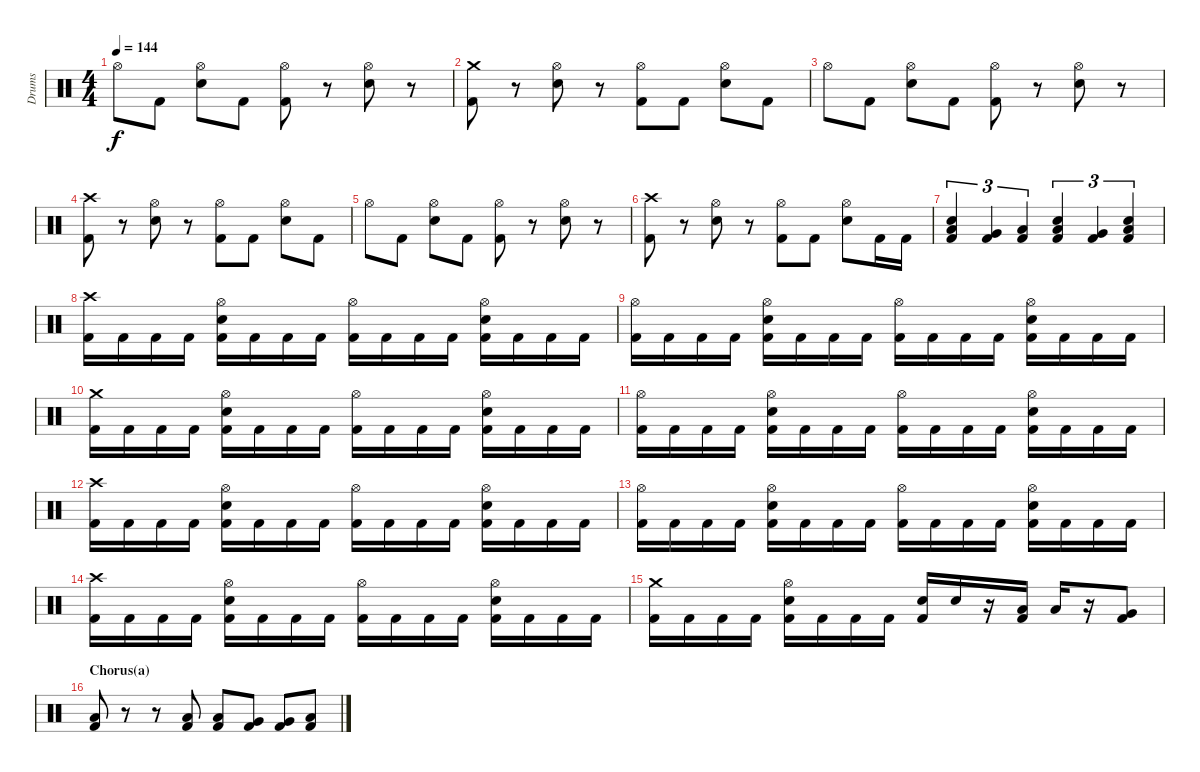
\track ("Drums" "Drums") {instrument percussion}
\staff {score}
\articulation defaults
\ts (4 4)
\tempo 144
\clef neutral
\ks c "Hi-Hat (open)".8{dy f} "Kick (hit) 2".8
("Hi-Hat (open)" "Electric Snare (hit)").8 "Kick (hit) 2".8 ("Kick (hit) 2" "Hi-Hat (open)").8 r.8 ("Hi-Hat (open)" "Electric Snare (hit)").8 r.8 |
("Kick (hit) 2" "Crash medium (hit)").8 r.8 ("Hi-Hat (open)" "Electric Snare (hit)").8 r.8 ("Kick (hit) 2" "Hi-Hat (open)").8 "Kick (hit) 2".8 ("Hi-Hat (open)" "Electric Snare (hit)").8 "Kick (hit) 2".8 |
"Hi-Hat (open)".8 "Kick (hit) 2".8 ("Hi-Hat (open)" "Electric Snare (hit)").8 "Kick (hit) 2".8 ("Kick (hit) 2" "Hi-Hat (open)").8 r.8 ("Hi-Hat (open)" "Electric Snare (hit)").8 r.8 |
("Kick (hit) 2" "Crash high (hit)").8 r.8 ("Hi-Hat (open)" "Electric Snare (hit)").8 r.8 ("Kick (hit) 2" "Hi-Hat (open)").8 "Kick (hit) 2".8 ("Hi-Hat (open)" "Electric Snare (hit)").8 "Kick (hit) 2".8 |
"Hi-Hat (open)".8 "Kick (hit) 2".8 ("Hi-Hat (open)" "Electric Snare (hit)").8 "Kick (hit) 2".8 ("Kick (hit) 2" "Hi-Hat (open)").8 r.8 ("Hi-Hat (open)" "Electric Snare (hit)").8 r.8 |
("Kick (hit) 2" "Crash high (hit)").8 r.8 ("Hi-Hat (open)" "Electric Snare (hit)").8 r.8 ("Kick (hit) 2" "Hi-Hat (open)").8 "Kick (hit) 2".8 ("Hi-Hat (open)" "Electric Snare (hit)").8 "Kick (hit) 2".16 "Kick (hit) 2".16 |
("Kick (hit) 2" "Low Tom (hit)" "Electric Snare (hit)").4{tu (3 2)} ("Kick (hit) 2" "Very Low Tom (hit)").4{tu (3 2)} ("Kick (hit) 2" "Low Floor Tom (hit)").4{tu (3 2)} ("Kick (hit) 2" "Low Tom (hit)" "Electric Snare (hit)").4{tu (3 2)} ("Kick (hit) 2" "Very Low Tom (hit)").4{tu (3 2)} ("Kick (hit) 2" "Low Floor Tom (hit)" "Electric Snare (hit)").4{tu (3 2)} |
("Kick (hit) 2" "Crash high (hit)").16 "Kick (hit) 2".16 "Kick (hit) 2".16 "Kick (hit) 2".16 ("Kick (hit) 2" "Hi-Hat (open)" "Electric Snare (hit)").16 "Kick (hit) 2".16 "Kick (hit) 2".16 "Kick (hit) 2".16 ("Kick (hit) 2" "Hi-Hat (open)").16 "Kick (hit) 2".16 "Kick (hit) 2".16 "Kick (hit) 2".16 ("Kick (hit) 2" "Hi-Hat (open)" "Electric Snare (hit)").16 "Kick (hit) 2".16 "Kick (hit) 2".16 "Kick (hit) 2".16 |
("Kick (hit) 2" "Hi-Hat (open)").16 "Kick (hit) 2".16 "Kick (hit) 2".16 "Kick (hit) 2".16 ("Kick (hit) 2" "Hi-Hat (open)" "Electric Snare (hit)").16 "Kick (hit) 2".16 "Kick (hit) 2".16 "Kick (hit) 2".16 ("Kick (hit) 2" "Hi-Hat (open)").16 "Kick (hit) 2".16 "Kick (hit) 2".16 "Kick (hit) 2".16 ("Kick (hit) 2" "Hi-Hat (open)" "Electric Snare (hit)").16 "Kick (hit) 2".16 "Kick (hit) 2".16 "Kick (hit) 2".16 |
("Kick (hit) 2" "Crash medium (hit)").16 "Kick (hit) 2".16 "Kick (hit) 2".16 "Kick (hit) 2".16 ("Kick (hit) 2" "Hi-Hat (open)" "Electric Snare (hit)").16 "Kick (hit) 2".16 "Kick (hit) 2".16 "Kick (hit) 2".16 ("Kick (hit) 2" "Hi-Hat (open)").16 "Kick (hit) 2".16 "Kick (hit) 2".16 "Kick (hit) 2".16 ("Kick (hit) 2" "Hi-Hat (open)" "Electric Snare (hit)").16 "Kick (hit) 2".16 "Kick (hit) 2".16 "Kick (hit) 2".16 |
("Kick (hit) 2" "Hi-Hat (open)").16 "Kick (hit) 2".16 "Kick (hit) 2".16 "Kick (hit) 2".16 ("Kick (hit) 2" "Hi-Hat (open)" "Electric Snare (hit)").16 "Kick (hit) 2".16 "Kick (hit) 2".16 "Kick (hit) 2".16 ("Kick (hit) 2" "Hi-Hat (open)").16 "Kick (hit) 2".16 "Kick (hit) 2".16 "Kick (hit) 2".16 ("Kick (hit) 2" "Hi-Hat (open)" "Electric Snare (hit)").16 "Kick (hit) 2".16 "Kick (hit) 2".16 "Kick (hit) 2".16 |
("Kick (hit) 2" "Crash high (hit)").16 "Kick (hit) 2".16 "Kick (hit) 2".16 "Kick (hit) 2".16 ("Kick (hit) 2" "Hi-Hat (open)" "Electric Snare (hit)").16 "Kick (hit) 2".16 "Kick (hit) 2".16 "Kick (hit) 2".16 ("Kick (hit) 2" "Hi-Hat (open)").16 "Kick (hit) 2".16 "Kick (hit) 2".16 "Kick (hit) 2".16 ("Kick (hit) 2" "Hi-Hat (open)" "Electric Snare (hit)").16 "Kick (hit) 2".16 "Kick (hit) 2".16 "Kick (hit) 2".16 |
("Kick (hit) 2" "Hi-Hat (open)").16 "Kick (hit) 2".16 "Kick (hit) 2".16 "Kick (hit) 2".16 ("Kick (hit) 2" "Hi-Hat (open)" "Electric Snare (hit)").16 "Kick (hit) 2".16 "Kick (hit) 2".16 "Kick (hit) 2".16 ("Kick (hit) 2" "Hi-Hat (open)").16 "Kick (hit) 2".16 "Kick (hit) 2".16 "Kick (hit) 2".16 ("Kick (hit) 2" "Hi-Hat (open)" "Electric Snare (hit)").16 "Kick (hit) 2".16 "Kick (hit) 2".16 "Kick (hit) 2".16 |
("Kick (hit) 2" "Crash high (hit)").16 "Kick (hit) 2".16 "Kick (hit) 2".16 "Kick (hit) 2".16 ("Kick (hit) 2" "Hi-Hat (open)" "Electric Snare (hit)").16 "Kick (hit) 2".16 "Kick (hit) 2".16 "Kick (hit) 2".16 ("Kick (hit) 2" "Hi-Hat (open)").16 "Kick (hit) 2".16 "Kick (hit) 2".16 "Kick (hit) 2".16 ("Kick (hit) 2" "Hi-Hat (open)" "Electric Snare (hit)").16 "Kick (hit) 2".16 "Kick (hit) 2".16 "Kick (hit) 2".16 |
("Kick (hit) 2" "Crash medium (hit)").16 "Kick (hit) 2".16 "Kick (hit) 2".16 "Kick (hit) 2".16 ("Kick (hit) 2" "Hi-Hat (open)" "Electric Snare (hit)").16 "Kick (hit) 2".16 "Kick (hit) 2".16 "Kick (hit) 2".16 ("Kick (hit) 2" "Electric Snare (hit)").16 "Electric Snare (hit)".16 r.16 ("Kick (hit) 2" "Low Tom (hit)").16 "Low Tom (hit)".16 r.16 ("Kick (hit) 2" "Very Low Tom (hit)").8 |
\section ("" "Chorus(a)")
("Kick (hit) 2" "Low Tom (hit)").8 r.8 r.8 ("Kick (hit) 2" "Low Tom (hit)").8 ("Kick (hit) 2" "Low Tom (hit)").8 ("Kick (hit) 2" "Very Low Tom (hit)").8 ("Kick (hit) 2" "Very Low Tom (hit)").8 ("Kick (hit) 2" "Low Floor Tom (hit)").8
